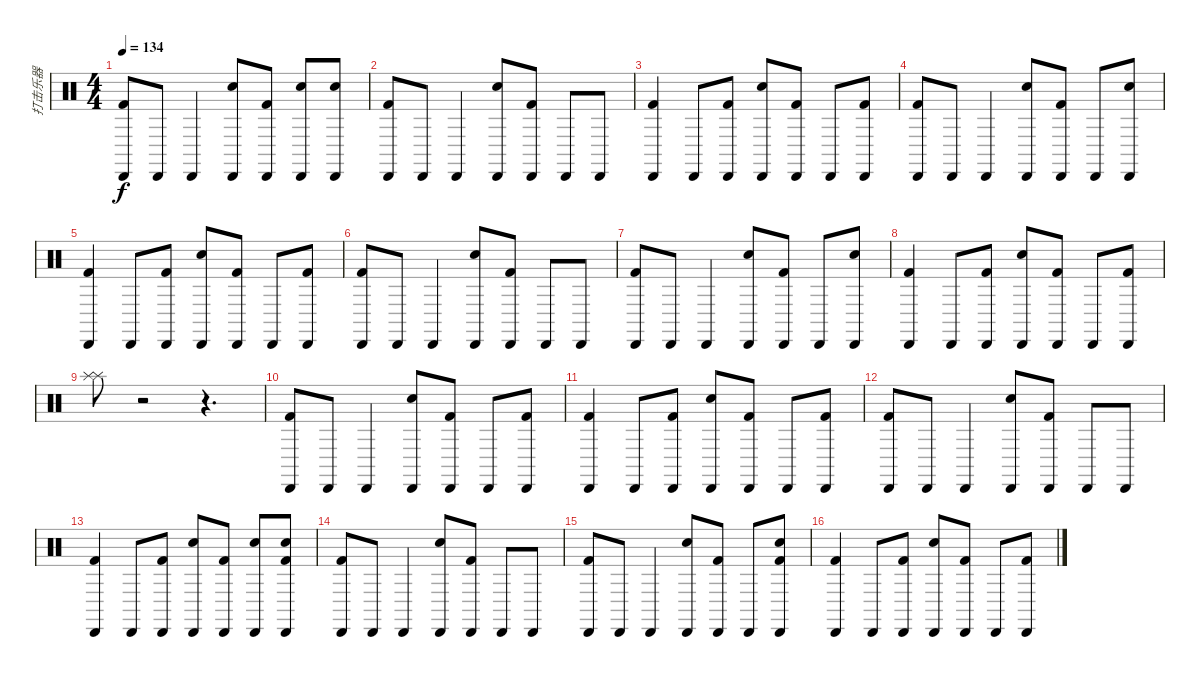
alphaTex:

\track ("打击乐器" "打击乐器") {instrument percussion}
\staff {score}
\articulation defaults
\ts (4 4)
\tempo 134
\clef neutral
\ks c
("Cabasa (hit)" "Kick (hit) 2").8{dy f} "Cabasa (hit)".8 "Cabasa (hit)".4 ("Snare (hit) 2" "Cabasa (hit)").8 ("Cabasa (hit)" "Kick (hit) 2").8 ("Snare (hit) 2" "Cabasa (hit)").8 ("Snare (hit) 2" "Cabasa (hit)").8 |
("Cabasa (hit)" "Kick (hit) 2").8 "Cabasa (hit)".8 "Cabasa (hit)".4 ("Snare (hit) 2" "Cabasa (hit)").8 ("Cabasa (hit)" "Kick (hit) 2").8 "Cabasa (hit)".8 "Cabasa (hit)".8 |
("Cabasa (hit)" "Kick (hit) 2").4 "Cabasa (hit)".8 ("Cabasa (hit)" "Kick (hit) 2").8 ("Snare (hit) 2" "Cabasa (hit)").8 ("Cabasa (hit)" "Kick (hit) 2").8 "Cabasa (hit)".8 ("Cabasa (hit)" "Kick (hit) 2").8 |
("Cabasa (hit)" "Kick (hit) 2").8 "Cabasa (hit)".8 "Cabasa (hit)".4 ("Snare (hit) 2" "Cabasa (hit)").8 ("Cabasa (hit)" "Kick (hit) 2").8 "Cabasa (hit)".8 ("Snare (hit) 2" "Cabasa (hit)").8 |
("Cabasa (hit)" "Kick (hit) 2").4 "Cabasa (hit)".8 ("Cabasa (hit)" "Kick (hit) 2").8 ("Snare (hit) 2" "Cabasa (hit)").8 ("Cabasa (hit)" "Kick (hit) 2").8 "Cabasa (hit)".8 ("Cabasa (hit)" "Kick (hit) 2").8 |
("Cabasa (hit)" "Kick (hit) 2").8 "Cabasa (hit)".8 "Cabasa (hit)".4 ("Snare (hit) 2" "Cabasa (hit)").8 ("Cabasa (hit)" "Kick (hit) 2").8 "Cabasa (hit)".8 "Cabasa (hit)".8 |
("Cabasa (hit)" "Kick (hit) 2").8 "Cabasa (hit)".8 "Cabasa (hit)".4 ("Snare (hit) 2" "Cabasa (hit)").8 ("Cabasa (hit)" "Kick (hit) 2").8 "Cabasa (hit)".8 ("Snare (hit) 2" "Cabasa (hit)").8 |
("Cabasa (hit)" "Kick (hit) 2").4 "Cabasa (hit)".8 ("Cabasa (hit)" "Kick (hit) 2").8 ("Snare (hit) 2" "Cabasa (hit)").8 ("Cabasa (hit)" "Kick (hit) 2").8 "Cabasa (hit)".8 ("Cabasa (hit)" "Kick (hit) 2").8 |
("Splash (hit)" "Splash (hit)").8 r.2 r.4{d} |
("Cabasa (hit)" "Kick (hit) 2").8 "Cabasa (hit)".8 "Cabasa (hit)".4 ("Snare (hit) 2" "Cabasa (hit)").8 ("Cabasa (hit)" "Kick (hit) 2").8 "Cabasa (hit)".8 ("Cabasa (hit)" "Kick (hit) 2").8 |
("Cabasa (hit)" "Kick (hit) 2").4 "Cabasa (hit)".8 ("Cabasa (hit)" "Kick (hit) 2").8 ("Snare (hit) 2" "Cabasa (hit)").8 ("Cabasa (hit)" "Kick (hit) 2").8 "Cabasa (hit)".8 ("Cabasa (hit)" "Kick (hit) 2").8 |
("Cabasa (hit)" "Kick (hit) 2").8 "Cabasa (hit)".8 "Cabasa (hit)".4 ("Snare (hit) 2" "Cabasa (hit)").8 ("Cabasa (hit)" "Kick (hit) 2").8 "Cabasa (hit)".8 "Cabasa (hit)".8 |
("Cabasa (hit)" "Kick (hit) 2").4 "Cabasa (hit)".8 ("Cabasa (hit)" "Kick (hit) 2").8 ("Snare (hit) 2" "Cabasa (hit)").8 ("Cabasa (hit)" "Kick (hit) 2").8 ("Snare (hit) 2" "Cabasa (hit)").8 ("Snare (hit) 2" "Cabasa (hit)" "Kick (hit) 2").8 |
("Cabasa (hit)" "Kick (hit) 2").8 "Cabasa (hit)".8 "Cabasa (hit)".4 ("Snare (hit) 2" "Cabasa (hit)").8 ("Cabasa (hit)" "Kick (hit) 2").8 "Cabasa (hit)".8 "Cabasa (hit)".8 |
("Cabasa (hit)" "Kick (hit) 2").8 "Cabasa (hit)".8 "Cabasa (hit)".4 ("Snare (hit) 2" "Cabasa (hit)").8 ("Cabasa (hit)" "Kick (hit) 2").8 "Cabasa (hit)".8 ("Snare (hit) 2" "Cabasa (hit)" "Kick (hit) 2").8 |
("Cabasa (hit)" "Kick (hit) 2").4 "Cabasa (hit)".8 ("Cabasa (hit)" "Kick (hit) 2").8 ("Snare (hit) 2" "Cabasa (hit)").8 ("Cabasa (hit)" "Kick (hit) 2").8 "Cabasa (hit)".8 ("Cabasa (hit)" "Kick (hit) 2").8
